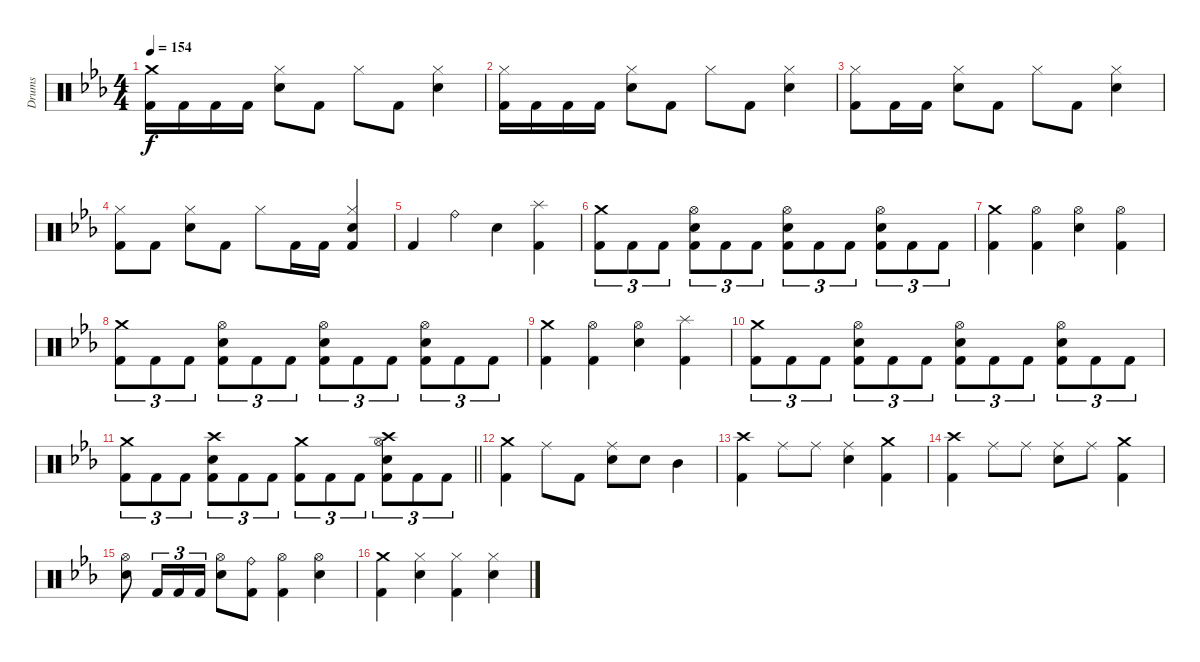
\track ("Drums" "Drums") {instrument percussion}
\staff {score}
\articulation defaults
\ts (4 4)
\tempo 154
\clef neutral
\ks cminor
("Crash medium (hit)" "Kick (hit) 2").16{dy f} "Kick (hit) 2".16 "Kick (hit) 2".16 "Kick (hit) 2".16 ("Hi-Hat (closed)" "Snare (hit) 2").8 "Kick (hit) 2".8 "Hi-Hat (closed)".8 "Kick (hit) 2".8 ("Hi-Hat (closed)" "Snare (hit) 2").4 |
("Hi-Hat (closed)" "Kick (hit) 2").16 "Kick (hit) 2".16 "Kick (hit) 2".16 "Kick (hit) 2".16 ("Hi-Hat (closed)" "Snare (hit) 2").8 "Kick (hit) 2".8 "Hi-Hat (closed)".8 "Kick (hit) 2".8 ("Hi-Hat (closed)" "Snare (hit) 2").4 |
("Hi-Hat (closed)" "Kick (hit) 2").8 "Kick (hit) 2".16 "Kick (hit) 2".16 ("Hi-Hat (closed)" "Snare (hit) 2").8 "Kick (hit) 2".8 "Hi-Hat (closed)".8 "Kick (hit) 2".8 ("Hi-Hat (closed)" "Snare (hit) 2").4 |
("Hi-Hat (closed)" "Kick (hit) 2").8 "Kick (hit) 2".8 ("Hi-Hat (closed)" "Snare (hit) 2").8 "Kick (hit) 2".8 "Hi-Hat (closed)".8 "Kick (hit) 2".16 "Kick (hit) 2".16 ("Hi-Hat (closed)" "Snare (hit) 2" "Kick (hit) 2").4 |
"Kick (hit) 2".4 "Ride (bell)".4 "Snare (hit) 2".4 ("Splash (hit)" "Kick (hit) 2").4 |
("Crash medium (hit)" "Kick (hit) 2").8{tu (3 2)} "Kick (hit) 2".8{tu (3 2)} "Kick (hit) 2".8{tu (3 2)} ("Hi-Hat (open)" "Snare (hit) 2" "Kick (hit) 2").8{tu (3 2)} "Kick (hit) 2".8{tu (3 2)} "Kick (hit) 2".8{tu (3 2)} ("Hi-Hat (open)" "Snare (hit) 2" "Kick (hit) 2").8{tu (3 2)} "Kick (hit) 2".8{tu (3 2)} "Kick (hit) 2".8{tu (3 2)} ("Hi-Hat (open)" "Snare (hit) 2" "Kick (hit) 2").8{tu (3 2)} "Kick (hit) 2".8{tu (3 2)} "Kick (hit) 2".8{tu (3 2)} |
("Crash medium (hit)" "Kick (hit) 2").4 ("Hi-Hat (open)" "Kick (hit) 2").4 ("Hi-Hat (open)" "Snare (hit) 2").4 ("Hi-Hat (open)" "Kick (hit) 2").4 |
("Crash medium (hit)" "Kick (hit) 2").8{tu (3 2)} "Kick (hit) 2".8{tu (3 2)} "Kick (hit) 2".8{tu (3 2)} ("Hi-Hat (open)" "Snare (hit) 2" "Kick (hit) 2").8{tu (3 2)} "Kick (hit) 2".8{tu (3 2)} "Kick (hit) 2".8{tu (3 2)} ("Hi-Hat (open)" "Snare (hit) 2" "Kick (hit) 2").8{tu (3 2)} "Kick (hit) 2".8{tu (3 2)} "Kick (hit) 2".8{tu (3 2)} ("Hi-Hat (open)" "Snare (hit) 2" "Kick (hit) 2").8{tu (3 2)} "Kick (hit) 2".8{tu (3 2)} "Kick (hit) 2".8{tu (3 2)} |
("Crash medium (hit)" "Kick (hit) 2").4 ("Hi-Hat (open)" "Kick (hit) 2").4 ("Hi-Hat (open)" "Snare (hit) 2").4 ("Splash (hit)" "Kick (hit) 2").4 |
("Crash medium (hit)" "Kick (hit) 2").8{tu (3 2)} "Kick (hit) 2".8{tu (3 2)} "Kick (hit) 2".8{tu (3 2)} ("Hi-Hat (open)" "Snare (hit) 2" "Kick (hit) 2").8{tu (3 2)} "Kick (hit) 2".8{tu (3 2)} "Kick (hit) 2".8{tu (3 2)} ("Hi-Hat (open)" "Snare (hit) 2" "Kick (hit) 2").8{tu (3 2)} "Kick (hit) 2".8{tu (3 2)} "Kick (hit) 2".8{tu (3 2)} ("Hi-Hat (open)" "Snare (hit) 2" "Kick (hit) 2").8{tu (3 2)} "Kick (hit) 2".8{tu (3 2)} "Kick (hit) 2".8{tu (3 2)} |
\barLineRight lightlight
("Crash medium (hit)" "Kick (hit) 2").8{tu (3 2)} "Kick (hit) 2".8{tu (3 2)} "Kick (hit) 2".8{tu (3 2)} ("Crash high (hit)" "Snare (hit) 2" "Kick (hit) 2").8{tu (3 2)} "Kick (hit) 2".8{tu (3 2)} "Kick (hit) 2".8{tu (3 2)} ("Crash medium (hit)" "Kick (hit) 2").8{tu (3 2)} "Kick (hit) 2".8{tu (3 2)} "Kick (hit) 2".8{tu (3 2)} ("Crash high (hit)" "Hi-Hat (open)" "Snare (hit) 2" "Kick (hit) 2").8{tu (3 2)} "Kick (hit) 2".8{tu (3 2)} "Kick (hit) 2".8{tu (3 2)} |
\section ("" "")
("Crash medium (hit)" "Kick (hit) 2").4 "Ride (middle)".8 "Kick (hit) 2".8 ("Ride (middle)" "Snare (hit) 2").8 "Snare (hit) 2".8 "Mid Tom (hit)".4 |
("Crash high (hit)" "Kick (hit) 2").4 "Ride (middle)".8 "Ride (middle)".8 ("Ride (middle)" "Snare (hit) 2").4 ("Crash medium (hit)" "Kick (hit) 2").4 |
("Crash high (hit)" "Kick (hit) 2").4 "Ride (middle)".8 "Ride (middle)".8 ("Ride (middle)" "Snare (hit) 2").8 "Ride (middle)".8 ("Crash medium (hit)" "Kick (hit) 2").4 |
("Hi-Hat (open)" "Snare (hit) 2").8 "Kick (hit) 2".16{tu (3 2)} "Kick (hit) 2".16{tu (3 2)} "Kick (hit) 2".16{tu (3 2)} ("Hi-Hat (open)" "Snare (hit) 2").8 ("Ride (bell)" "Kick (hit) 2").8 ("Hi-Hat (open)" "Kick (hit) 2").4 ("Hi-Hat (open)" "Snare (hit) 2").4 |
("Crash medium (hit)" "Kick (hit) 2").4 ("Hi-Hat (closed)" "Snare (hit) 2").4 ("Hi-Hat (closed)" "Kick (hit) 2").4 ("Hi-Hat (closed)" "Snare (hit) 2").4
